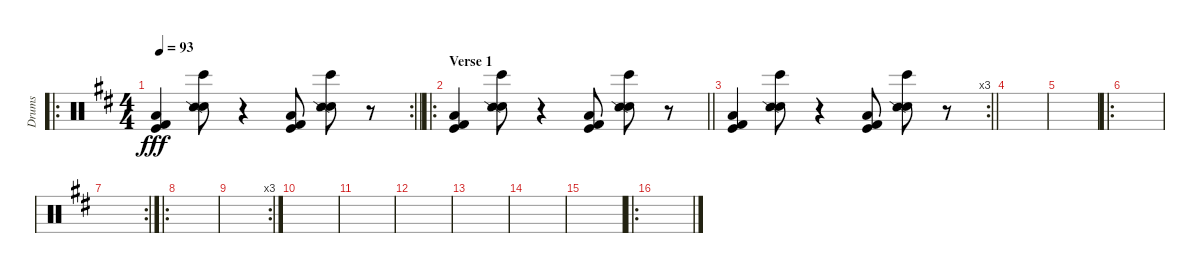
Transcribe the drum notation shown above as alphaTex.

\track ("Drums" "Drums") {instrument percussion}
\staff {score}
\articulation defaults
\ro
\rc 2
\ts (4 4)
\tempo 93
\clef neutral
\barLineRight lightlight
\ks d
("Kick (hit) 2" "Low Floor Tom (hit)" "Kick (hit)").4{dy fff} ("Hand Clap (hit)" "Bongo High (hit)" "Snare (side stick) 2").8 r.4 ("Kick (hit) 2" "Low Floor Tom (hit)" "Kick (hit)").8 ("Hand Clap (hit)" "Bongo High (hit)" "Snare (side stick) 2").8 r.8 |
\ro
\section ("" "Verse 1")
\barLineRight lightlight
("Kick (hit) 2" "Low Floor Tom (hit)" "Kick (hit)").4 ("Hand Clap (hit)" "Bongo High (hit)" "Snare (side stick) 2").8 r.4 ("Kick (hit) 2" "Low Floor Tom (hit)" "Kick (hit)").8 ("Hand Clap (hit)" "Bongo High (hit)" "Snare (side stick) 2").8 r.8 |
\rc 3
\barLineRight lightlight
("Kick (hit) 2" "Low Floor Tom (hit)" "Kick (hit)").4 ("Hand Clap (hit)" "Bongo High (hit)" "Snare (side stick) 2").8 r.4 ("Kick (hit) 2" "Low Floor Tom (hit)" "Kick (hit)").8 ("Hand Clap (hit)" "Bongo High (hit)" "Snare (side stick) 2").8 r.8 |
|
|
\ro
|
\rc 2
|
\ro
|
\rc 3
|
|
|
|
|
|
|
\ro
